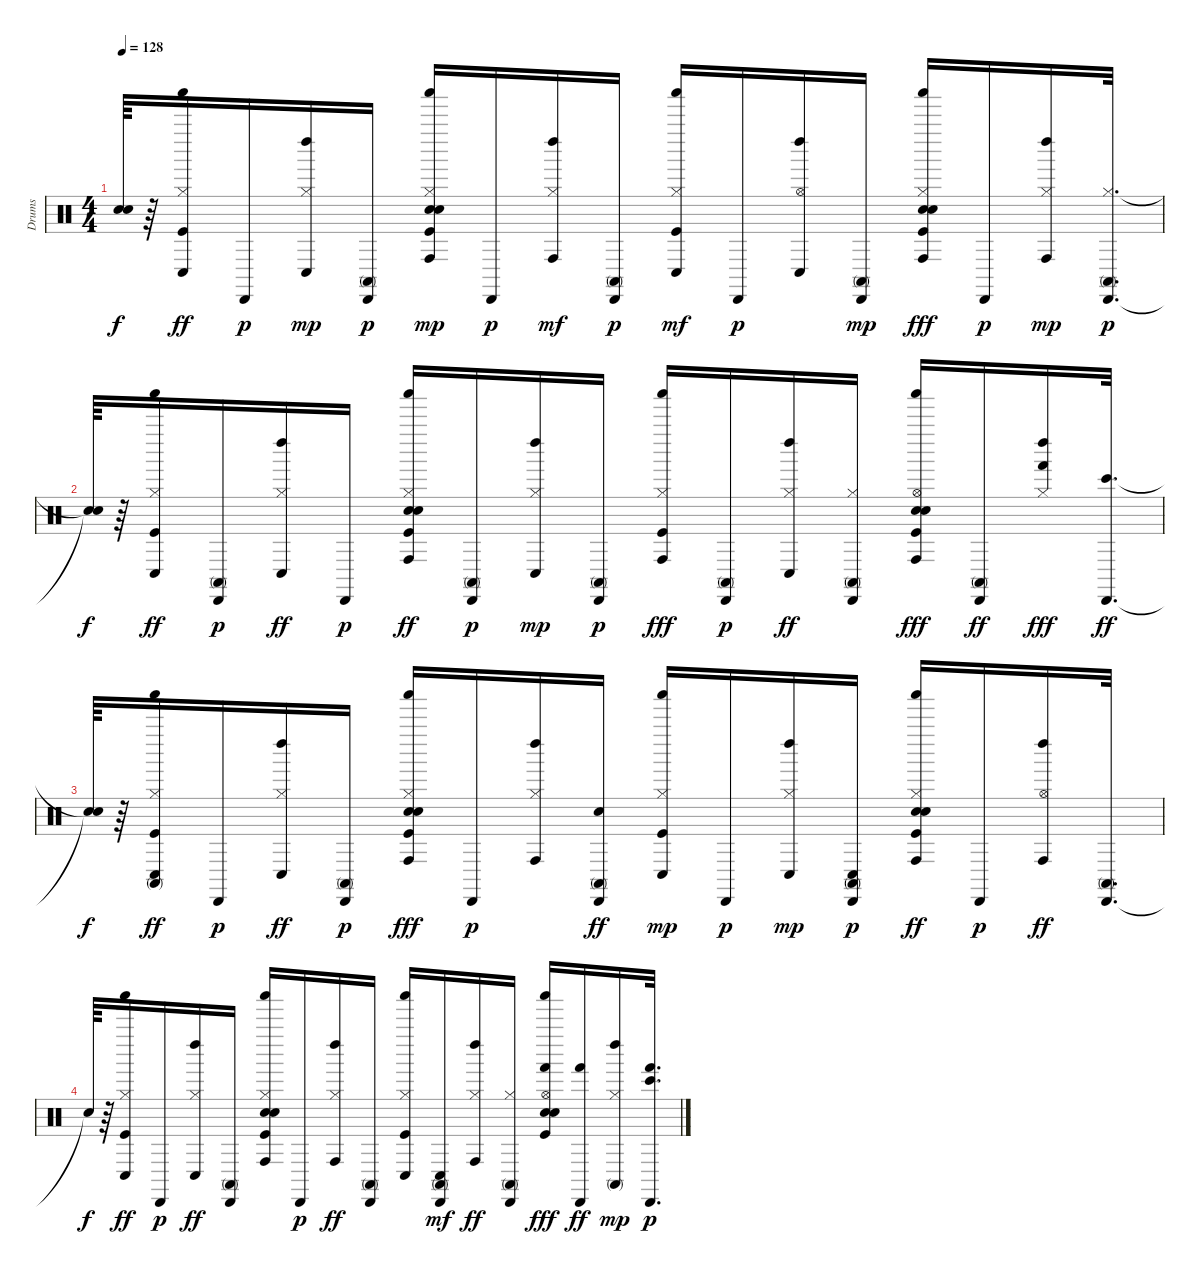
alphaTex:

\track ("Drums" "Drums") {instrument percussion}
\staff {score}
\articulation defaults
\ts (4 4)
\tempo 128
\clef neutral
\ks c
("Snare (hit)"{t} "Snare (hit)"{t}).64{dy f} r.64 ("Kick (hit)" "Hi-Hat (closed)" "Shaker (hit)" "Conga low (hit)").16{dy ff} "Cabasa (hit)".16{dy p} ("Hi-Hat (closed)" "Left Maraca (hit)" "Conga low (hit)").16{dy mp} ("Cabasa (hit)" "Conga high (mute)").16{dy p} ("Kick (hit)" "Snare (hit) 2" "Hand Clap (hit)" "Hi-Hat (closed)" "Shaker (hit)" "Conga high (hit)").16{dy mp} "Cabasa (hit)".16{dy p} ("Hi-Hat (closed)" "Left Maraca (hit)" "Conga high (hit)").16{dy mf} ("Cabasa (hit)" "Conga high (mute)").16{dy p} ("Kick (hit)" "Hi-Hat (closed)" "Shaker (hit)" "Conga low (hit)").16{dy mf} "Cabasa (hit)".16{dy p} ("Hi-Hat (open)" "Left Maraca (hit)" "Conga low (hit)").16 ("Cabasa (hit)" "Conga high (mute)").16{dy mp} ("Kick (hit)" "Snare (hit) 2" "Hand Clap (hit)" "Hi-Hat (closed)" "Shaker (hit)" "Conga high (hit)").16{dy fff} "Cabasa (hit)".16{dy p} ("Hi-Hat (closed)" "Left Maraca (hit)" "Conga high (hit)").16{dy mp} ("Hi-Hat (closed)" "Cabasa (hit)" "Conga high (mute)").32{d dy p} |
("Snare (hit)"{t} "Snare (hit)"{t}).64{dy f} r.64 ("Kick (hit)" "Hi-Hat (closed)" "Shaker (hit)" "Conga low (hit)").16{dy ff} ("Cabasa (hit)" "Conga high (mute)").16{dy p} ("Hi-Hat (closed)" "Left Maraca (hit)" "Conga low (hit)").16{dy ff} "Cabasa (hit)".16{dy p} ("Kick (hit)" "Snare (hit) 2" "Hand Clap (hit)" "Hi-Hat (closed)" "Shaker (hit)" "Conga high (hit)").16{dy ff} ("Cabasa (hit)" "Conga high (mute)").16{dy p} ("Hi-Hat (closed)" "Left Maraca (hit)" "Conga low (hit)").16{dy mp} ("Cabasa (hit)" "Conga high (mute)").16{dy p} ("Kick (hit)" "Hi-Hat (closed)" "Shaker (hit)" "Conga high (hit)").16{dy fff} ("Cabasa (hit)" "Conga high (mute)").16{dy p} ("Hi-Hat (closed)" "Left Maraca (hit)" "Conga low (hit)").16{dy ff} ("Hi-Hat (closed)" "Cabasa (hit)" "Conga high (mute)").16 ("Kick (hit)" "Snare (hit) 2" "Hand Clap (hit)" "Hi-Hat (open)" "Shaker (hit)" "Conga high (hit)").16{dy fff} ("Cabasa (hit)" "Conga high (mute)").16{dy ff} ("Hi-Hat (closed)" "Left Maraca (hit)" "Hand (hit)").16{dy fff} ("Cabasa (hit)" "Bongo High (hit)").32{d dy ff} |
("Snare (hit)"{t} "Snare (hit)"{t}).64{dy f} r.64 ("Kick (hit)" "Hi-Hat (closed)" "Shaker (hit)" "Conga low (hit)" "Conga high (mute)").16{dy ff} "Cabasa (hit)".16{dy p} ("Hi-Hat (closed)" "Left Maraca (hit)" "Conga low (hit)").16{dy ff} ("Cabasa (hit)" "Conga high (mute)").16{dy p} ("Kick (hit)" "Snare (hit) 2" "Hand Clap (hit)" "Hi-Hat (closed)" "Shaker (hit)" "Conga high (hit)").16{dy fff} "Cabasa (hit)".16{dy p} ("Hi-Hat (closed)" "Left Maraca (hit)" "Conga high (hit)").16 ("Snare (hit) 2" "Cabasa (hit)" "Conga high (mute)").16{dy ff} ("Kick (hit)" "Hi-Hat (closed)" "Shaker (hit)" "Conga low (hit)").16{dy mp} "Cabasa (hit)".16{dy p} ("Hi-Hat (closed)" "Left Maraca (hit)" "Conga low (hit)").16{dy mp} ("Cabasa (hit)" "Conga high (mute)" "Conga low (hit)").16{dy p} ("Kick (hit)" "Snare (hit) 2" "Hand Clap (hit)" "Hi-Hat (closed)" "Shaker (hit)" "Conga high (hit)").16{dy ff} "Cabasa (hit)".16{dy p} ("Hi-Hat (open)" "Left Maraca (hit)" "Conga high (hit)").16{dy ff} ("Cabasa (hit)" "Conga high (mute)").32{d} |
"Snare (hit)"{t}.64{dy f} r.64 ("Kick (hit)" "Hi-Hat (closed)" "Shaker (hit)" "Conga low (hit)").16{dy ff} "Cabasa (hit)".16{dy p} ("Hi-Hat (closed)" "Left Maraca (hit)" "Conga low (hit)").16{dy ff} ("Cabasa (hit)" "Conga high (mute)").16 ("Kick (hit)" "Snare (hit) 2" "Hand Clap (hit)" "Hi-Hat (closed)" "Shaker (hit)" "Conga high (hit)").16 "Cabasa (hit)".16{dy p} ("Hi-Hat (closed)" "Left Maraca (hit)" "Conga high (hit)").16{dy ff} ("Cabasa (hit)" "Conga high (mute)").16 ("Kick (hit)" "Hi-Hat (closed)" "Shaker (hit)" "Conga low (hit)").16 ("Cabasa (hit)" "Conga high (mute)" "Conga low (hit)").16{dy mf} ("Hi-Hat (closed)" "Left Maraca (hit)" "Conga high (hit)").16{dy ff} ("Hi-Hat (closed)" "Cabasa (hit)" "Conga high (mute)").16 ("Kick (hit)" "Snare (hit) 2" "Hand Clap (hit)" "Hi-Hat (open)" "Shaker (hit)" "Hand (hit)").16{dy fff} ("Cabasa (hit)" "Hand (hit)").16{dy ff} ("Hi-Hat (closed)" "Left Maraca (hit)" "Conga high (mute)").16{dy mp} ("Cabasa (hit)" "Hand (hit)" "Bongo High (hit)").32{d dy p}
